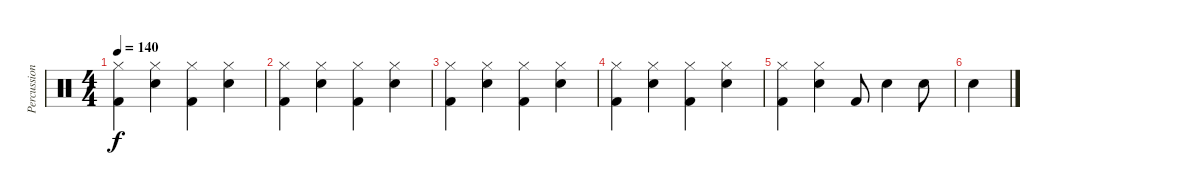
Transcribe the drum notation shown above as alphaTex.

\track ("Percussion" "Percussion") {instrument percussion}
\staff {score}
\articulation defaults
\ts (4 4)
\tempo 140
\clef neutral
\ks c
("Hi-Hat (closed)" "Kick (hit) 2").4{dy f} ("Hi-Hat (closed)" "Electric Snare (hit)").4 ("Hi-Hat (closed)" "Kick (hit) 2").4 ("Hi-Hat (closed)" "Electric Snare (hit)").4 |
("Hi-Hat (closed)" "Kick (hit) 2").4 ("Hi-Hat (closed)" "Electric Snare (hit)").4 ("Hi-Hat (closed)" "Kick (hit) 2").4 ("Hi-Hat (closed)" "Electric Snare (hit)").4 |
("Hi-Hat (closed)" "Kick (hit) 2").4 ("Hi-Hat (closed)" "Electric Snare (hit)").4 ("Hi-Hat (closed)" "Kick (hit) 2").4 ("Hi-Hat (closed)" "Electric Snare (hit)").4 |
("Hi-Hat (closed)" "Kick (hit) 2").4 ("Hi-Hat (closed)" "Electric Snare (hit)").4 ("Hi-Hat (closed)" "Kick (hit) 2").4 ("Hi-Hat (closed)" "Electric Snare (hit)").4 |
("Hi-Hat (closed)" "Kick (hit) 2").4 ("Hi-Hat (closed)" "Electric Snare (hit)").4 "Kick (hit) 2".8 "Electric Snare (hit)".4 "Electric Snare (hit)".8 |
"Electric Snare (hit)".4
